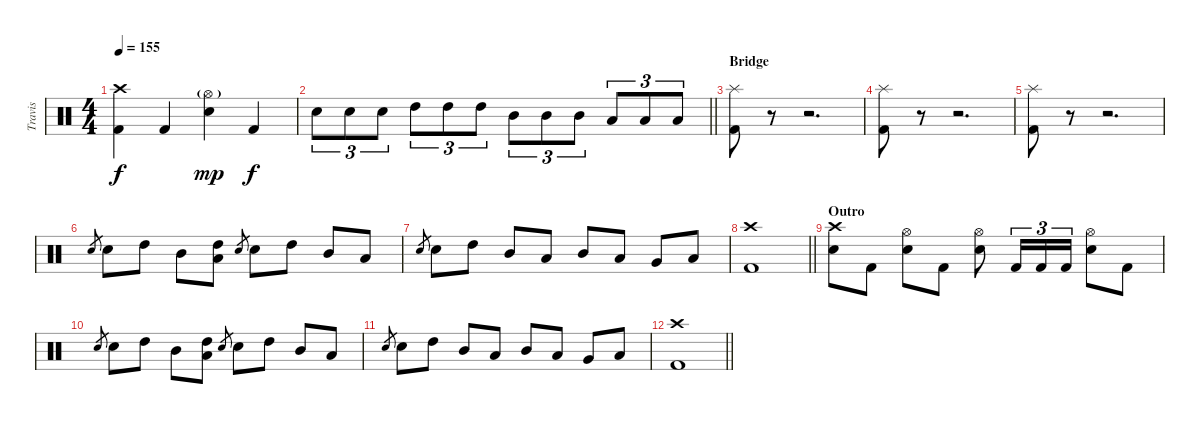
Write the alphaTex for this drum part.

\track ("Travis" "Travis") {instrument percussion}
\staff {score}
\articulation defaults
\ts (4 4)
\tempo 155
\clef neutral
\ks c
("Crash high (hit)" "Kick (hit) 2").4{dy f} "Kick (hit) 2".4 ("Hi-Hat (open)"{g} "Snare (hit) 2").4{dy mp} "Kick (hit) 2".4{dy f} |
\barLineRight lightlight "Snare (hit) 2".8{tu (3 2)} "Snare (hit) 2".8{tu (3 2)} "Snare (hit) 2".8{tu (3 2)} "High Tom (hit)".8{tu (3 2)} "High Tom (hit)".8{tu (3 2)} "High Tom (hit)".8{tu (3 2)} "Mid Tom (hit)".8{tu (3 2)} "Mid Tom (hit)".8{tu (3 2)} "Mid Tom (hit)".8{tu (3 2)} "Low Tom (hit)".8{tu (3 2)} "Low Tom (hit)".8{tu (3 2)} "Low Tom (hit)".8{tu (3 2)}
|
\section ("" "Bridge")
("Splash (hit)" "Kick (hit) 2").8 r.8 r.2{d} |
("Splash (hit)" "Kick (hit) 2").8 r.8 r.2{d} |
("Splash (hit)" "Kick (hit) 2").8 r.8 r.2{d} |
"Snare (hit) 2".8{gr} "Snare (hit) 2".8 "High Tom (hit)".8 "Mid Tom (hit)".8 ("High Tom (hit)" "Low Tom (hit)").8 "Snare (hit) 2".8{gr} "Snare (hit) 2".8 "High Tom (hit)".8 "Mid Tom (hit)".8 "Low Tom (hit)".8 |
"Snare (hit) 2".8{gr} "Snare (hit) 2".8 "High Tom (hit)".8 "Mid Tom (hit)".8 "Low Tom (hit)".8 "Mid Tom (hit)".8 "Low Tom (hit)".8 "Very Low Tom (hit)".8 "Low Floor Tom (hit)".8 |
\barLineRight lightlight
("Crash high (hit)" "Kick (hit) 2").1 |
\section ("" "Outro")
("Crash high (hit)" "Snare (hit) 2").8 "Kick (hit) 2".8 ("Hi-Hat (open)" "Snare (hit) 2").8 "Kick (hit) 2".8 ("Hi-Hat (open)" "Snare (hit) 2").8 "Kick (hit) 2".16{tu (3 2)} "Kick (hit) 2".16{tu (3 2)} "Kick (hit) 2".16{tu (3 2)} ("Hi-Hat (open)" "Snare (hit) 2").8 "Kick (hit) 2".8 |
"Snare (hit) 2".8{gr} "Snare (hit) 2".8 "High Tom (hit)".8 "Mid Tom (hit)".8 ("High Tom (hit)" "Low Tom (hit)").8 "Snare (hit) 2".8{gr} "Snare (hit) 2".8 "High Tom (hit)".8 "Mid Tom (hit)".8 "Low Tom (hit)".8 |
"Snare (hit) 2".8{gr} "Snare (hit) 2".8 "High Tom (hit)".8 "Mid Tom (hit)".8 "Low Tom (hit)".8 "Mid Tom (hit)".8 "Low Tom (hit)".8 "Very Low Tom (hit)".8 "Low Floor Tom (hit)".8 |
\barLineRight lightlight
("Crash high (hit)" "Kick (hit) 2").1
